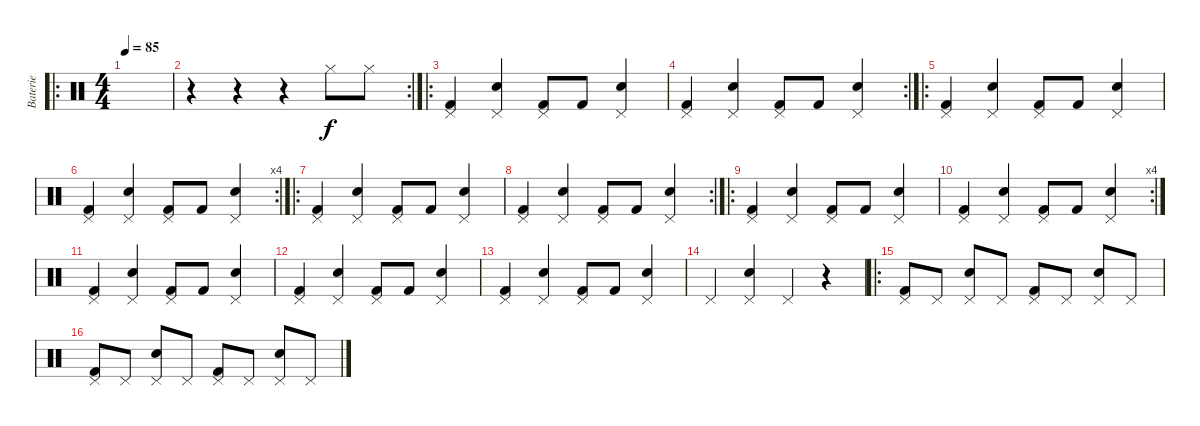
\track ("Baterie" "Baterie") {instrument percussion}
\staff {score}
\articulation defaults
\ro
\ts (4 4)
\tempo 85
\clef neutral
\ks c
|
\rc 2
r.4 r.4 r.4 "Hi-Hat (closed)".8 "Hi-Hat (closed)".8 |
\ro
("Pedal Hi-Hat (hit)" "Kick (hit) 2").4 ("Pedal Hi-Hat (hit)" "Electric Snare (hit)").4 ("Pedal Hi-Hat (hit)" "Kick (hit) 2").8 "Kick (hit) 2".8 ("Pedal Hi-Hat (hit)" "Electric Snare (hit)").4 |
\rc 2
("Pedal Hi-Hat (hit)" "Kick (hit) 2").4 ("Pedal Hi-Hat (hit)" "Electric Snare (hit)").4 ("Pedal Hi-Hat (hit)" "Kick (hit) 2").8 "Kick (hit) 2".8 ("Pedal Hi-Hat (hit)" "Electric Snare (hit)").4 |
\ro
("Pedal Hi-Hat (hit)" "Kick (hit) 2").4 ("Pedal Hi-Hat (hit)" "Electric Snare (hit)").4 ("Pedal Hi-Hat (hit)" "Kick (hit) 2").8 "Kick (hit) 2".8 ("Pedal Hi-Hat (hit)" "Electric Snare (hit)").4 |
\rc 4
("Pedal Hi-Hat (hit)" "Kick (hit) 2").4 ("Pedal Hi-Hat (hit)" "Electric Snare (hit)").4 ("Pedal Hi-Hat (hit)" "Kick (hit) 2").8 "Kick (hit) 2".8 ("Pedal Hi-Hat (hit)" "Electric Snare (hit)").4 |
\ro
("Pedal Hi-Hat (hit)" "Kick (hit) 2").4 ("Pedal Hi-Hat (hit)" "Electric Snare (hit)").4 ("Pedal Hi-Hat (hit)" "Kick (hit) 2").8 "Kick (hit) 2".8 ("Pedal Hi-Hat (hit)" "Electric Snare (hit)").4 |
\rc 2
("Pedal Hi-Hat (hit)" "Kick (hit) 2").4 ("Pedal Hi-Hat (hit)" "Electric Snare (hit)").4 ("Pedal Hi-Hat (hit)" "Kick (hit) 2").8 "Kick (hit) 2".8 ("Pedal Hi-Hat (hit)" "Electric Snare (hit)").4 |
\ro
("Pedal Hi-Hat (hit)" "Kick (hit) 2").4 ("Pedal Hi-Hat (hit)" "Electric Snare (hit)").4 ("Pedal Hi-Hat (hit)" "Kick (hit) 2").8 "Kick (hit) 2".8 ("Pedal Hi-Hat (hit)" "Electric Snare (hit)").4 |
\rc 4
("Pedal Hi-Hat (hit)" "Kick (hit) 2").4 ("Pedal Hi-Hat (hit)" "Electric Snare (hit)").4 ("Pedal Hi-Hat (hit)" "Kick (hit) 2").8 "Kick (hit) 2".8 ("Pedal Hi-Hat (hit)" "Electric Snare (hit)").4 |
("Pedal Hi-Hat (hit)" "Kick (hit) 2").4 ("Pedal Hi-Hat (hit)" "Electric Snare (hit)").4 ("Pedal Hi-Hat (hit)" "Kick (hit) 2").8 "Kick (hit) 2".8 ("Pedal Hi-Hat (hit)" "Electric Snare (hit)").4 |
("Pedal Hi-Hat (hit)" "Kick (hit) 2").4 ("Pedal Hi-Hat (hit)" "Electric Snare (hit)").4 ("Pedal Hi-Hat (hit)" "Kick (hit) 2").8 "Kick (hit) 2".8 ("Pedal Hi-Hat (hit)" "Electric Snare (hit)").4 |
("Pedal Hi-Hat (hit)" "Kick (hit) 2").4 ("Pedal Hi-Hat (hit)" "Electric Snare (hit)").4 ("Pedal Hi-Hat (hit)" "Kick (hit) 2").8 "Kick (hit) 2".8 ("Pedal Hi-Hat (hit)" "Electric Snare (hit)").4 |
"Pedal Hi-Hat (hit)".4 ("Pedal Hi-Hat (hit)" "Electric Snare (hit)").4 "Pedal Hi-Hat (hit)".4 r.4 |
\ro
("Pedal Hi-Hat (hit)" "Kick (hit) 2").8 "Pedal Hi-Hat (hit)".8 ("Pedal Hi-Hat (hit)" "Electric Snare (hit)").8 "Pedal Hi-Hat (hit)".8 ("Pedal Hi-Hat (hit)" "Kick (hit) 2").8 "Pedal Hi-Hat (hit)".8 ("Pedal Hi-Hat (hit)" "Electric Snare (hit)").8 "Pedal Hi-Hat (hit)".8 |
("Pedal Hi-Hat (hit)" "Kick (hit) 2").8 "Pedal Hi-Hat (hit)".8 ("Pedal Hi-Hat (hit)" "Electric Snare (hit)").8 "Pedal Hi-Hat (hit)".8 ("Pedal Hi-Hat (hit)" "Kick (hit) 2").8 "Pedal Hi-Hat (hit)".8 ("Pedal Hi-Hat (hit)" "Electric Snare (hit)").8 "Pedal Hi-Hat (hit)".8
